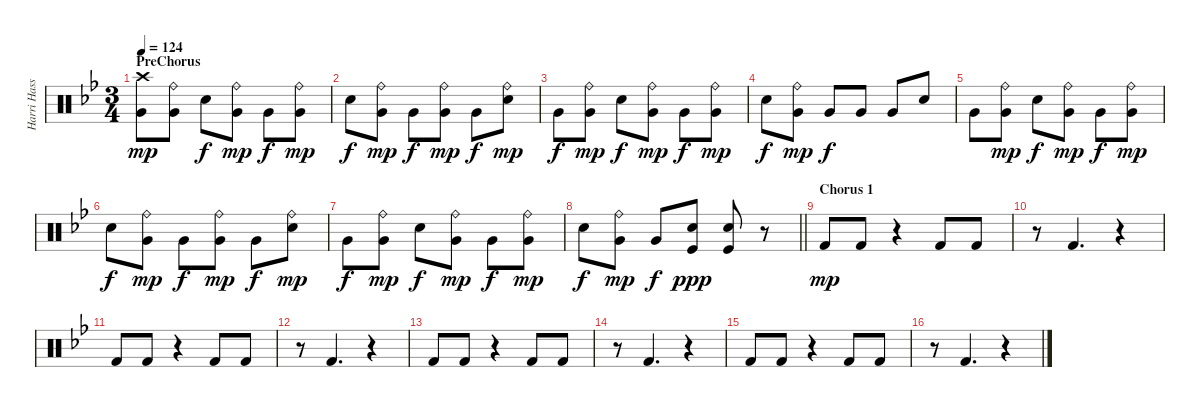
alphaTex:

\track ("Harri Hassin (drums)" "Harri Hass") {instrument percussion}
\staff {score}
\articulation defaults
\ts (3 4)
\section ("" "PreChorus")
\tempo 124
\clef neutral
\ks bb
("Crash high (hit)" "Very Low Tom (hit)").8{dy mp} ("Ride (bell)" "Very Low Tom (hit)").8 "Electric Snare (hit)".8{dy f} ("Ride (bell)" "Very Low Tom (hit)").8{dy mp} "Very Low Tom (hit)".8{dy f} ("Ride (bell)" "Very Low Tom (hit)").8{dy mp} |
"Electric Snare (hit)".8{dy f} ("Ride (bell)" "Very Low Tom (hit)").8{dy mp} "Very Low Tom (hit)".8{dy f} ("Ride (bell)" "Very Low Tom (hit)").8{dy mp} "Very Low Tom (hit)".8{dy f} ("Ride (bell)" "Electric Snare (hit)").8{dy mp} |
"Very Low Tom (hit)".8{dy f} ("Ride (bell)" "Very Low Tom (hit)").8{dy mp} "Electric Snare (hit)".8{dy f} ("Ride (bell)" "Very Low Tom (hit)").8{dy mp} "Very Low Tom (hit)".8{dy f} ("Ride (bell)" "Very Low Tom (hit)").8{dy mp} |
"Electric Snare (hit)".8{dy f} ("Ride (bell)" "Very Low Tom (hit)").8{dy mp} "Very Low Tom (hit)".8{dy f} "Very Low Tom (hit)".8 "Very Low Tom (hit)".8 "Electric Snare (hit)".8 |
"Very Low Tom (hit)".8 ("Ride (bell)" "Very Low Tom (hit)").8{dy mp} "Electric Snare (hit)".8{dy f} ("Ride (bell)" "Very Low Tom (hit)").8{dy mp} "Very Low Tom (hit)".8{dy f} ("Ride (bell)" "Very Low Tom (hit)").8{dy mp} |
"Electric Snare (hit)".8{dy f} ("Ride (bell)" "Very Low Tom (hit)").8{dy mp} "Very Low Tom (hit)".8{dy f} ("Ride (bell)" "Very Low Tom (hit)").8{dy mp} "Very Low Tom (hit)".8{dy f} ("Ride (bell)" "Electric Snare (hit)").8{dy mp} |
"Very Low Tom (hit)".8{dy f} ("Ride (bell)" "Very Low Tom (hit)").8{dy mp} "Electric Snare (hit)".8{dy f} ("Ride (bell)" "Very Low Tom (hit)").8{dy mp} "Very Low Tom (hit)".8{dy f} ("Ride (bell)" "Very Low Tom (hit)").8{dy mp} |
\barLineRight lightlight "Electric Snare (hit)".8{dy f}
("Ride (bell)" "Very Low Tom (hit)").8{dy mp} "Very Low Tom (hit)".8{dy f} ("Electric Snare (hit)" "Kick (hit)").8{dy ppp} ("Electric Snare (hit)" "Kick (hit)").8 r.8 |
\section ("" "Chorus 1")
"Kick (hit) 2".8{dy mp} "Kick (hit) 2".8 r.4 "Kick (hit) 2".8 "Kick (hit) 2".8 |
r.8 "Kick (hit) 2".4{d} r.4 |
"Kick (hit) 2".8 "Kick (hit) 2".8 r.4 "Kick (hit) 2".8 "Kick (hit) 2".8 |
r.8 "Kick (hit) 2".4{d} r.4 |
"Kick (hit) 2".8 "Kick (hit) 2".8 r.4 "Kick (hit) 2".8 "Kick (hit) 2".8 |
r.8 "Kick (hit) 2".4{d} r.4 |
"Kick (hit) 2".8 "Kick (hit) 2".8 r.4 "Kick (hit) 2".8 "Kick (hit) 2".8 |
r.8 "Kick (hit) 2".4{d} r.4
